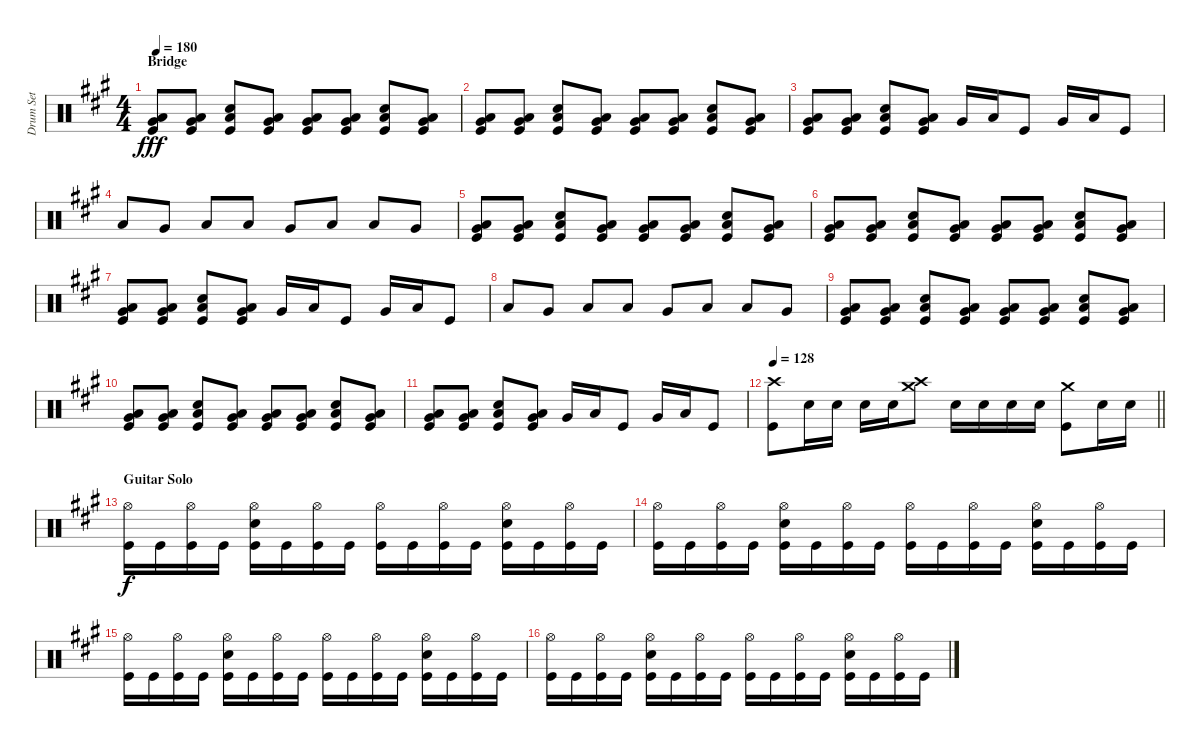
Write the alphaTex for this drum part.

\track ("Drum Set" "Drum Set") {instrument percussion}
\staff {score}
\articulation defaults
\ts (4 4)
\section ("" "Bridge")
\tempo 180
\clef neutral
\ks a
("Very Low Tom (hit)" "Low Floor Tom (hit)" "Kick (hit)").8{dy fff} ("Very Low Tom (hit)" "Low Floor Tom (hit)" "Kick (hit)").8 ("Electric Snare (hit)" "Low Floor Tom (hit)" "Kick (hit)").8 ("Very Low Tom (hit)" "Low Floor Tom (hit)" "Kick (hit)").8 ("Very Low Tom (hit)" "Low Floor Tom (hit)" "Kick (hit)").8 ("Very Low Tom (hit)" "Low Floor Tom (hit)" "Kick (hit)").8 ("Electric Snare (hit)" "Low Floor Tom (hit)" "Kick (hit)").8 ("Very Low Tom (hit)" "Low Floor Tom (hit)" "Kick (hit)").8 |
("Very Low Tom (hit)" "Low Floor Tom (hit)" "Kick (hit)").8 ("Very Low Tom (hit)" "Low Floor Tom (hit)" "Kick (hit)").8 ("Electric Snare (hit)" "Low Floor Tom (hit)" "Kick (hit)").8 ("Very Low Tom (hit)" "Low Floor Tom (hit)" "Kick (hit)").8 ("Very Low Tom (hit)" "Low Floor Tom (hit)" "Kick (hit)").8 ("Very Low Tom (hit)" "Low Floor Tom (hit)" "Kick (hit)").8 ("Electric Snare (hit)" "Low Floor Tom (hit)" "Kick (hit)").8 ("Very Low Tom (hit)" "Low Floor Tom (hit)" "Kick (hit)").8 |
("Very Low Tom (hit)" "Low Floor Tom (hit)" "Kick (hit)").8 ("Very Low Tom (hit)" "Low Floor Tom (hit)" "Kick (hit)").8 ("Electric Snare (hit)" "Low Floor Tom (hit)" "Kick (hit)").8 ("Very Low Tom (hit)" "Low Floor Tom (hit)" "Kick (hit)").8 "Very Low Tom (hit)".16 "Low Floor Tom (hit)".16 "Kick (hit)".8 "Very Low Tom (hit)".16 "Low Floor Tom (hit)".16 "Kick (hit)".8 |
"Low Tom (hit)".8 "Very Low Tom (hit)".8 "Low Floor Tom (hit)".8 "Low Tom (hit)".8 "Very Low Tom (hit)".8 "Low Floor Tom (hit)".8 "Low Tom (hit)".8 "Very Low Tom (hit)".8 |
("Very Low Tom (hit)" "Low Floor Tom (hit)" "Kick (hit)").8 ("Very Low Tom (hit)" "Low Floor Tom (hit)" "Kick (hit)").8 ("Electric Snare (hit)" "Low Floor Tom (hit)" "Kick (hit)").8 ("Very Low Tom (hit)" "Low Floor Tom (hit)" "Kick (hit)").8 ("Very Low Tom (hit)" "Low Floor Tom (hit)" "Kick (hit)").8 ("Very Low Tom (hit)" "Low Floor Tom (hit)" "Kick (hit)").8 ("Electric Snare (hit)" "Low Floor Tom (hit)" "Kick (hit)").8 ("Very Low Tom (hit)" "Low Floor Tom (hit)" "Kick (hit)").8 |
("Very Low Tom (hit)" "Low Floor Tom (hit)" "Kick (hit)").8 ("Very Low Tom (hit)" "Low Floor Tom (hit)" "Kick (hit)").8 ("Electric Snare (hit)" "Low Floor Tom (hit)" "Kick (hit)").8 ("Very Low Tom (hit)" "Low Floor Tom (hit)" "Kick (hit)").8 ("Very Low Tom (hit)" "Low Floor Tom (hit)" "Kick (hit)").8 ("Very Low Tom (hit)" "Low Floor Tom (hit)" "Kick (hit)").8 ("Electric Snare (hit)" "Low Floor Tom (hit)" "Kick (hit)").8 ("Very Low Tom (hit)" "Low Floor Tom (hit)" "Kick (hit)").8 |
("Very Low Tom (hit)" "Low Floor Tom (hit)" "Kick (hit)").8 ("Very Low Tom (hit)" "Low Floor Tom (hit)" "Kick (hit)").8 ("Electric Snare (hit)" "Low Floor Tom (hit)" "Kick (hit)").8 ("Very Low Tom (hit)" "Low Floor Tom (hit)" "Kick (hit)").8 "Very Low Tom (hit)".16 "Low Floor Tom (hit)".16 "Kick (hit)".8 "Very Low Tom (hit)".16 "Low Floor Tom (hit)".16 "Kick (hit)".8 |
"Low Tom (hit)".8 "Very Low Tom (hit)".8 "Low Floor Tom (hit)".8 "Low Tom (hit)".8 "Very Low Tom (hit)".8 "Low Floor Tom (hit)".8 "Low Tom (hit)".8 "Very Low Tom (hit)".8 |
("Very Low Tom (hit)" "Low Floor Tom (hit)" "Kick (hit)").8 ("Very Low Tom (hit)" "Low Floor Tom (hit)" "Kick (hit)").8 ("Electric Snare (hit)" "Low Floor Tom (hit)" "Kick (hit)").8 ("Very Low Tom (hit)" "Low Floor Tom (hit)" "Kick (hit)").8 ("Very Low Tom (hit)" "Low Floor Tom (hit)" "Kick (hit)").8 ("Very Low Tom (hit)" "Low Floor Tom (hit)" "Kick (hit)").8 ("Electric Snare (hit)" "Low Floor Tom (hit)" "Kick (hit)").8 ("Very Low Tom (hit)" "Low Floor Tom (hit)" "Kick (hit)").8 |
("Very Low Tom (hit)" "Low Floor Tom (hit)" "Kick (hit)").8 ("Very Low Tom (hit)" "Low Floor Tom (hit)" "Kick (hit)").8 ("Electric Snare (hit)" "Low Floor Tom (hit)" "Kick (hit)").8 ("Very Low Tom (hit)" "Low Floor Tom (hit)" "Kick (hit)").8 ("Very Low Tom (hit)" "Low Floor Tom (hit)" "Kick (hit)").8 ("Very Low Tom (hit)" "Low Floor Tom (hit)" "Kick (hit)").8 ("Electric Snare (hit)" "Low Floor Tom (hit)" "Kick (hit)").8 ("Very Low Tom (hit)" "Low Floor Tom (hit)" "Kick (hit)").8 |
("Very Low Tom (hit)" "Low Floor Tom (hit)" "Kick (hit)").8 ("Very Low Tom (hit)" "Low Floor Tom (hit)" "Kick (hit)").8 ("Electric Snare (hit)" "Low Floor Tom (hit)" "Kick (hit)").8 ("Very Low Tom (hit)" "Low Floor Tom (hit)" "Kick (hit)").8 "Very Low Tom (hit)".16 "Low Floor Tom (hit)".16 "Kick (hit)".8 "Very Low Tom (hit)".16 "Low Floor Tom (hit)".16 "Kick (hit)".8 |
\tempo 128
\barLineRight lightlight
("Crash high (hit)" "Kick (hit)").8 "Electric Snare (hit)".16 "Electric Snare (hit)".16 "Electric Snare (hit)".16 "Electric Snare (hit)".16 ("Crash medium (hit)" "Crash high (hit)").8 "Electric Snare (hit)".16 "Electric Snare (hit)".16 "Electric Snare (hit)".16 "Electric Snare (hit)".16 ("Crash medium (hit)" "Kick (hit)").8 "Electric Snare (hit)".16 "Electric Snare (hit)".16 |
\section ("" "Guitar Solo")
("Hi-Hat (open)" "Kick (hit)").16{dy f} "Kick (hit)".16 ("Hi-Hat (open)" "Kick (hit)").16 "Kick (hit)".16 ("Electric Snare (hit)" "Hi-Hat (open)" "Kick (hit)").16 "Kick (hit)".16 ("Hi-Hat (open)" "Kick (hit)").16 "Kick (hit)".16 ("Hi-Hat (open)" "Kick (hit)").16 "Kick (hit)".16 ("Hi-Hat (open)" "Kick (hit)").16 "Kick (hit)".16 ("Electric Snare (hit)" "Hi-Hat (open)" "Kick (hit)").16 "Kick (hit)".16 ("Hi-Hat (open)" "Kick (hit)").16 "Kick (hit)".16 |
("Hi-Hat (open)" "Kick (hit)").16 "Kick (hit)".16 ("Hi-Hat (open)" "Kick (hit)").16 "Kick (hit)".16 ("Electric Snare (hit)" "Hi-Hat (open)" "Kick (hit)").16 "Kick (hit)".16 ("Hi-Hat (open)" "Kick (hit)").16 "Kick (hit)".16 ("Hi-Hat (open)" "Kick (hit)").16 "Kick (hit)".16 ("Hi-Hat (open)" "Kick (hit)").16 "Kick (hit)".16 ("Electric Snare (hit)" "Hi-Hat (open)" "Kick (hit)").16 "Kick (hit)".16 ("Hi-Hat (open)" "Kick (hit)").16 "Kick (hit)".16 |
("Hi-Hat (open)" "Kick (hit)").16 "Kick (hit)".16 ("Hi-Hat (open)" "Kick (hit)").16 "Kick (hit)".16 ("Electric Snare (hit)" "Hi-Hat (open)" "Kick (hit)").16 "Kick (hit)".16 ("Hi-Hat (open)" "Kick (hit)").16 "Kick (hit)".16 ("Hi-Hat (open)" "Kick (hit)").16 "Kick (hit)".16 ("Hi-Hat (open)" "Kick (hit)").16 "Kick (hit)".16 ("Electric Snare (hit)" "Hi-Hat (open)" "Kick (hit)").16 "Kick (hit)".16 ("Hi-Hat (open)" "Kick (hit)").16 "Kick (hit)".16 |
("Hi-Hat (open)" "Kick (hit)").16 "Kick (hit)".16 ("Hi-Hat (open)" "Kick (hit)").16 "Kick (hit)".16 ("Electric Snare (hit)" "Hi-Hat (open)" "Kick (hit)").16 "Kick (hit)".16 ("Hi-Hat (open)" "Kick (hit)").16 "Kick (hit)".16 ("Hi-Hat (open)" "Kick (hit)").16 "Kick (hit)".16 ("Hi-Hat (open)" "Kick (hit)").16 "Kick (hit)".16 ("Electric Snare (hit)" "Hi-Hat (open)" "Kick (hit)").16 "Kick (hit)".16 ("Hi-Hat (open)" "Kick (hit)").16 "Kick (hit)".16
